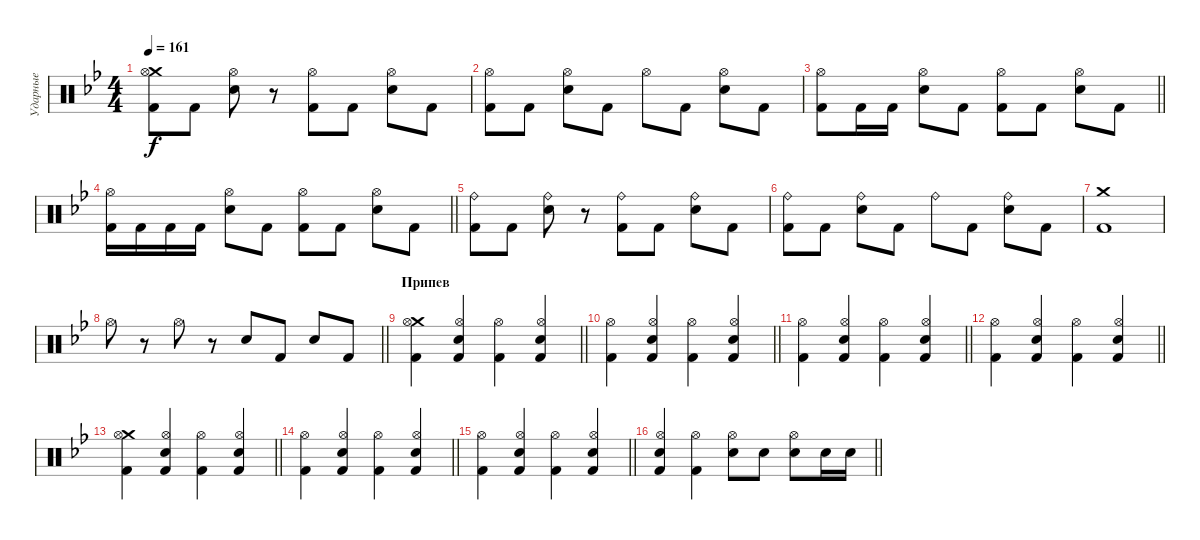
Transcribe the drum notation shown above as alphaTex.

\track ("Ударные" "Ударные") {instrument percussion}
\staff {score}
\articulation defaults
\ts (4 4)
\section ("" "")
\tempo 161
\clef neutral
\ks gminor
("Crash medium (hit)" "Kick (hit) 2" "Hi-Hat (open)").8{dy f} "Kick (hit) 2".8 ("Electric Snare (hit)" "Hi-Hat (open)").8 r.8 ("Kick (hit) 2" "Hi-Hat (open)").8 "Kick (hit) 2".8 ("Electric Snare (hit)" "Hi-Hat (open)").8 "Kick (hit) 2".8 |
("Kick (hit) 2" "Hi-Hat (open)").8 "Kick (hit) 2".8 ("Electric Snare (hit)" "Hi-Hat (open)").8 "Kick (hit) 2".8 "Hi-Hat (open)".8 "Kick (hit) 2".8 ("Electric Snare (hit)" "Hi-Hat (open)").8 "Kick (hit) 2".8 |
\barLineRight lightlight
("Kick (hit) 2" "Hi-Hat (open)").8 "Kick (hit) 2".16 "Kick (hit) 2".16 ("Electric Snare (hit)" "Hi-Hat (open)").8 "Kick (hit) 2".8 ("Kick (hit) 2" "Hi-Hat (open)").8 "Kick (hit) 2".8 ("Electric Snare (hit)" "Hi-Hat (open)").8 "Kick (hit) 2".8 |
\barLineRight lightlight
("Kick (hit) 2" "Hi-Hat (open)").16 "Kick (hit) 2".16 "Kick (hit) 2".16 "Kick (hit) 2".16 ("Electric Snare (hit)" "Hi-Hat (open)").8 "Kick (hit) 2".8 ("Kick (hit) 2" "Hi-Hat (open)").8 "Kick (hit) 2".8 ("Electric Snare (hit)" "Hi-Hat (open)").8 "Kick (hit) 2".8 |
("Kick (hit) 2" "Ride (bell)").8 "Kick (hit) 2".8 ("Electric Snare (hit)" "Ride (bell)").8 r.8 ("Kick (hit) 2" "Ride (bell)").8 "Kick (hit) 2".8 ("Electric Snare (hit)" "Ride (bell)").8 "Kick (hit) 2".8 |
("Kick (hit) 2" "Ride (bell)").8 "Kick (hit) 2".8 ("Electric Snare (hit)" "Ride (bell)").8 "Kick (hit) 2".8 "Ride (bell)".8 "Kick (hit) 2".8 ("Electric Snare (hit)" "Ride (bell)").8 "Kick (hit) 2".8 |
("Crash medium (hit)" "Kick (hit) 2").1 |
\barLineRight lightlight "Hi-Hat (open)".8
r.8 "Hi-Hat (open)".8 r.8 "Electric Snare (hit)".8 "Kick (hit) 2".8 "Electric Snare (hit)".8 "Kick (hit) 2".8 |
\section ("" "Припев")
\barLineRight lightlight
("Crash medium (hit)" "Kick (hit) 2" "Hi-Hat (open)").4 ("Electric Snare (hit)" "Kick (hit) 2" "Hi-Hat (open)").4 ("Kick (hit) 2" "Hi-Hat (open)").4 ("Electric Snare (hit)" "Kick (hit) 2" "Hi-Hat (open)").4 |
\barLineRight lightlight
("Kick (hit) 2" "Hi-Hat (open)").4 ("Electric Snare (hit)" "Kick (hit) 2" "Hi-Hat (open)").4 ("Kick (hit) 2" "Hi-Hat (open)").4 ("Electric Snare (hit)" "Kick (hit) 2" "Hi-Hat (open)").4 |
\barLineRight lightlight
("Kick (hit) 2" "Hi-Hat (open)").4 ("Electric Snare (hit)" "Kick (hit) 2" "Hi-Hat (open)").4 ("Kick (hit) 2" "Hi-Hat (open)").4 ("Electric Snare (hit)" "Kick (hit) 2" "Hi-Hat (open)").4 |
\barLineRight lightlight
("Kick (hit) 2" "Hi-Hat (open)").4 ("Electric Snare (hit)" "Kick (hit) 2" "Hi-Hat (open)").4 ("Kick (hit) 2" "Hi-Hat (open)").4 ("Electric Snare (hit)" "Kick (hit) 2" "Hi-Hat (open)").4 |
\barLineRight lightlight
("Crash medium (hit)" "Kick (hit) 2" "Hi-Hat (open)").4 ("Electric Snare (hit)" "Kick (hit) 2" "Hi-Hat (open)").4 ("Kick (hit) 2" "Hi-Hat (open)").4 ("Electric Snare (hit)" "Kick (hit) 2" "Hi-Hat (open)").4 |
\barLineRight lightlight
("Kick (hit) 2" "Hi-Hat (open)").4 ("Electric Snare (hit)" "Kick (hit) 2" "Hi-Hat (open)").4 ("Kick (hit) 2" "Hi-Hat (open)").4 ("Electric Snare (hit)" "Kick (hit) 2" "Hi-Hat (open)").4 |
\barLineRight lightlight
("Kick (hit) 2" "Hi-Hat (open)").4 ("Electric Snare (hit)" "Kick (hit) 2" "Hi-Hat (open)").4 ("Kick (hit) 2" "Hi-Hat (open)").4 ("Electric Snare (hit)" "Kick (hit) 2" "Hi-Hat (open)").4 |
\barLineRight lightlight
("Electric Snare (hit)" "Kick (hit) 2" "Hi-Hat (open)").4 ("Kick (hit) 2" "Hi-Hat (open)").4 ("Electric Snare (hit)" "Hi-Hat (open)").8 "Electric Snare (hit)".8 ("Electric Snare (hit)" "Hi-Hat (open)").8 "Electric Snare (hit)".16 "Electric Snare (hit)".16
